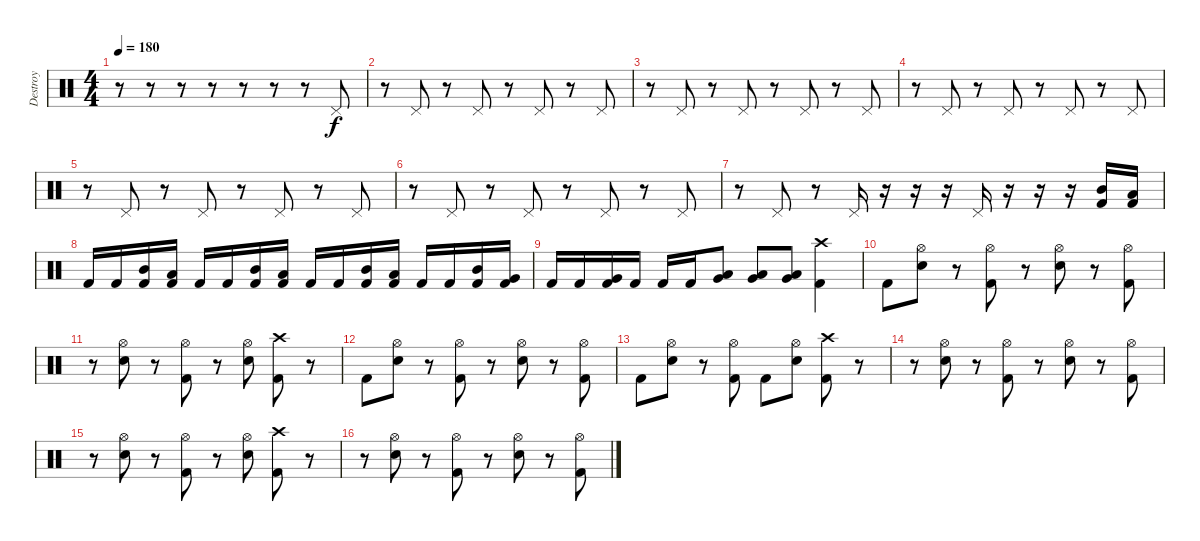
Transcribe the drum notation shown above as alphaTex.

\track ("Destroy" "Destroy") {instrument percussion}
\staff {score}
\articulation defaults
\ts (4 4)
\tempo 180
\clef neutral
\ks c
r.8{dy f} r.8 r.8 r.8 r.8 r.8 r.8 "Pedal Hi-Hat (hit)".8 |
r.8 "Pedal Hi-Hat (hit)".8 r.8 "Pedal Hi-Hat (hit)".8 r.8 "Pedal Hi-Hat (hit)".8 r.8 "Pedal Hi-Hat (hit)".8 |
r.8 "Pedal Hi-Hat (hit)".8 r.8 "Pedal Hi-Hat (hit)".8 r.8 "Pedal Hi-Hat (hit)".8 r.8 "Pedal Hi-Hat (hit)".8 |
r.8 "Pedal Hi-Hat (hit)".8 r.8 "Pedal Hi-Hat (hit)".8 r.8 "Pedal Hi-Hat (hit)".8 r.8 "Pedal Hi-Hat (hit)".8 |
r.8 "Pedal Hi-Hat (hit)".8 r.8 "Pedal Hi-Hat (hit)".8 r.8 "Pedal Hi-Hat (hit)".8 r.8 "Pedal Hi-Hat (hit)".8 |
r.8 "Pedal Hi-Hat (hit)".8 r.8 "Pedal Hi-Hat (hit)".8 r.8 "Pedal Hi-Hat (hit)".8 r.8 "Pedal Hi-Hat (hit)".8 |
r.8 "Pedal Hi-Hat (hit)".8 r.8 "Pedal Hi-Hat (hit)".16 r.16 r.16 r.16 "Pedal Hi-Hat (hit)".16 r.16 r.16 r.16 ("Mid Tom (hit)" "Kick (hit) 2").16 ("Low Tom (hit)" "Kick (hit) 2").16 |
"Kick (hit) 2".16 "Kick (hit) 2".16 ("Mid Tom (hit)" "Kick (hit) 2").16 ("Low Tom (hit)" "Kick (hit) 2").16 "Kick (hit) 2".16 "Kick (hit) 2".16 ("Mid Tom (hit)" "Kick (hit) 2").16 ("Low Tom (hit)" "Kick (hit) 2").16 "Kick (hit) 2".16 "Kick (hit) 2".16 ("Mid Tom (hit)" "Kick (hit) 2").16 ("Low Tom (hit)" "Kick (hit) 2").16 "Kick (hit) 2".16 "Kick (hit) 2".16 ("Mid Tom (hit)" "Kick (hit) 2").16 ("Very Low Tom (hit)" "Kick (hit) 2").16 |
"Kick (hit) 2".16 "Kick (hit) 2".16 ("Very Low Tom (hit)" "Kick (hit) 2").16 "Kick (hit) 2".16 "Kick (hit) 2".16 "Kick (hit) 2".16 ("Very Low Tom (hit)" "Low Floor Tom (hit)").8 ("Very Low Tom (hit)" "Low Floor Tom (hit)").8 ("Very Low Tom (hit)" "Low Floor Tom (hit)").8 ("Crash high (hit)" "Kick (hit) 2").4 |
"Kick (hit) 2".8 ("Hi-Hat (open)" "Electric Snare (hit)").8 r.8 ("Hi-Hat (open)" "Kick (hit) 2").8 r.8 ("Hi-Hat (open)" "Electric Snare (hit)").8 r.8 ("Hi-Hat (open)" "Kick (hit) 2").8 |
r.8 ("Hi-Hat (open)" "Electric Snare (hit)").8 r.8 ("Hi-Hat (open)" "Kick (hit) 2").8 r.8 ("Hi-Hat (open)" "Electric Snare (hit)").8 ("Crash high (hit)" "Kick (hit) 2").8 r.8 |
"Kick (hit) 2".8 ("Hi-Hat (open)" "Electric Snare (hit)").8 r.8 ("Hi-Hat (open)" "Kick (hit) 2").8 r.8 ("Hi-Hat (open)" "Electric Snare (hit)").8 r.8 ("Hi-Hat (open)" "Kick (hit) 2").8 |
"Kick (hit) 2".8 ("Hi-Hat (open)" "Electric Snare (hit)").8 r.8 ("Hi-Hat (open)" "Kick (hit) 2").8 "Kick (hit) 2".8 ("Hi-Hat (open)" "Electric Snare (hit)").8 ("Crash high (hit)" "Kick (hit) 2").8 r.8 |
r.8 ("Hi-Hat (open)" "Electric Snare (hit)").8 r.8 ("Hi-Hat (open)" "Kick (hit) 2").8 r.8 ("Hi-Hat (open)" "Electric Snare (hit)").8 r.8 ("Hi-Hat (open)" "Kick (hit) 2").8 |
r.8 ("Hi-Hat (open)" "Electric Snare (hit)").8 r.8 ("Hi-Hat (open)" "Kick (hit) 2").8 r.8 ("Hi-Hat (open)" "Electric Snare (hit)").8 ("Crash high (hit)" "Kick (hit) 2").8 r.8 |
r.8 ("Hi-Hat (open)" "Electric Snare (hit)").8 r.8 ("Hi-Hat (open)" "Kick (hit) 2").8 r.8 ("Hi-Hat (open)" "Electric Snare (hit)").8 r.8 ("Hi-Hat (open)" "Kick (hit) 2").8
